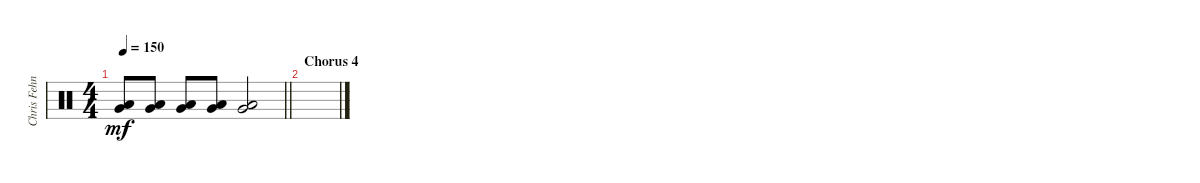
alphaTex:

\track ("Chris Fehn" "Chris Fehn") {instrument percussion}
\staff {score}
\articulation defaults
\ts (4 4)
\tempo 150
\clef neutral
\barLineRight lightlight
\ks c
("Very Low Tom (hit)" "Low Floor Tom (hit)").8{dy mf} ("Very Low Tom (hit)" "Low Floor Tom (hit)").8 ("Very Low Tom (hit)" "Low Floor Tom (hit)").8 ("Very Low Tom (hit)" "Low Floor Tom (hit)").8 ("Very Low Tom (hit)" "Low Floor Tom (hit)").2 |
\section ("" "Chorus 4")
